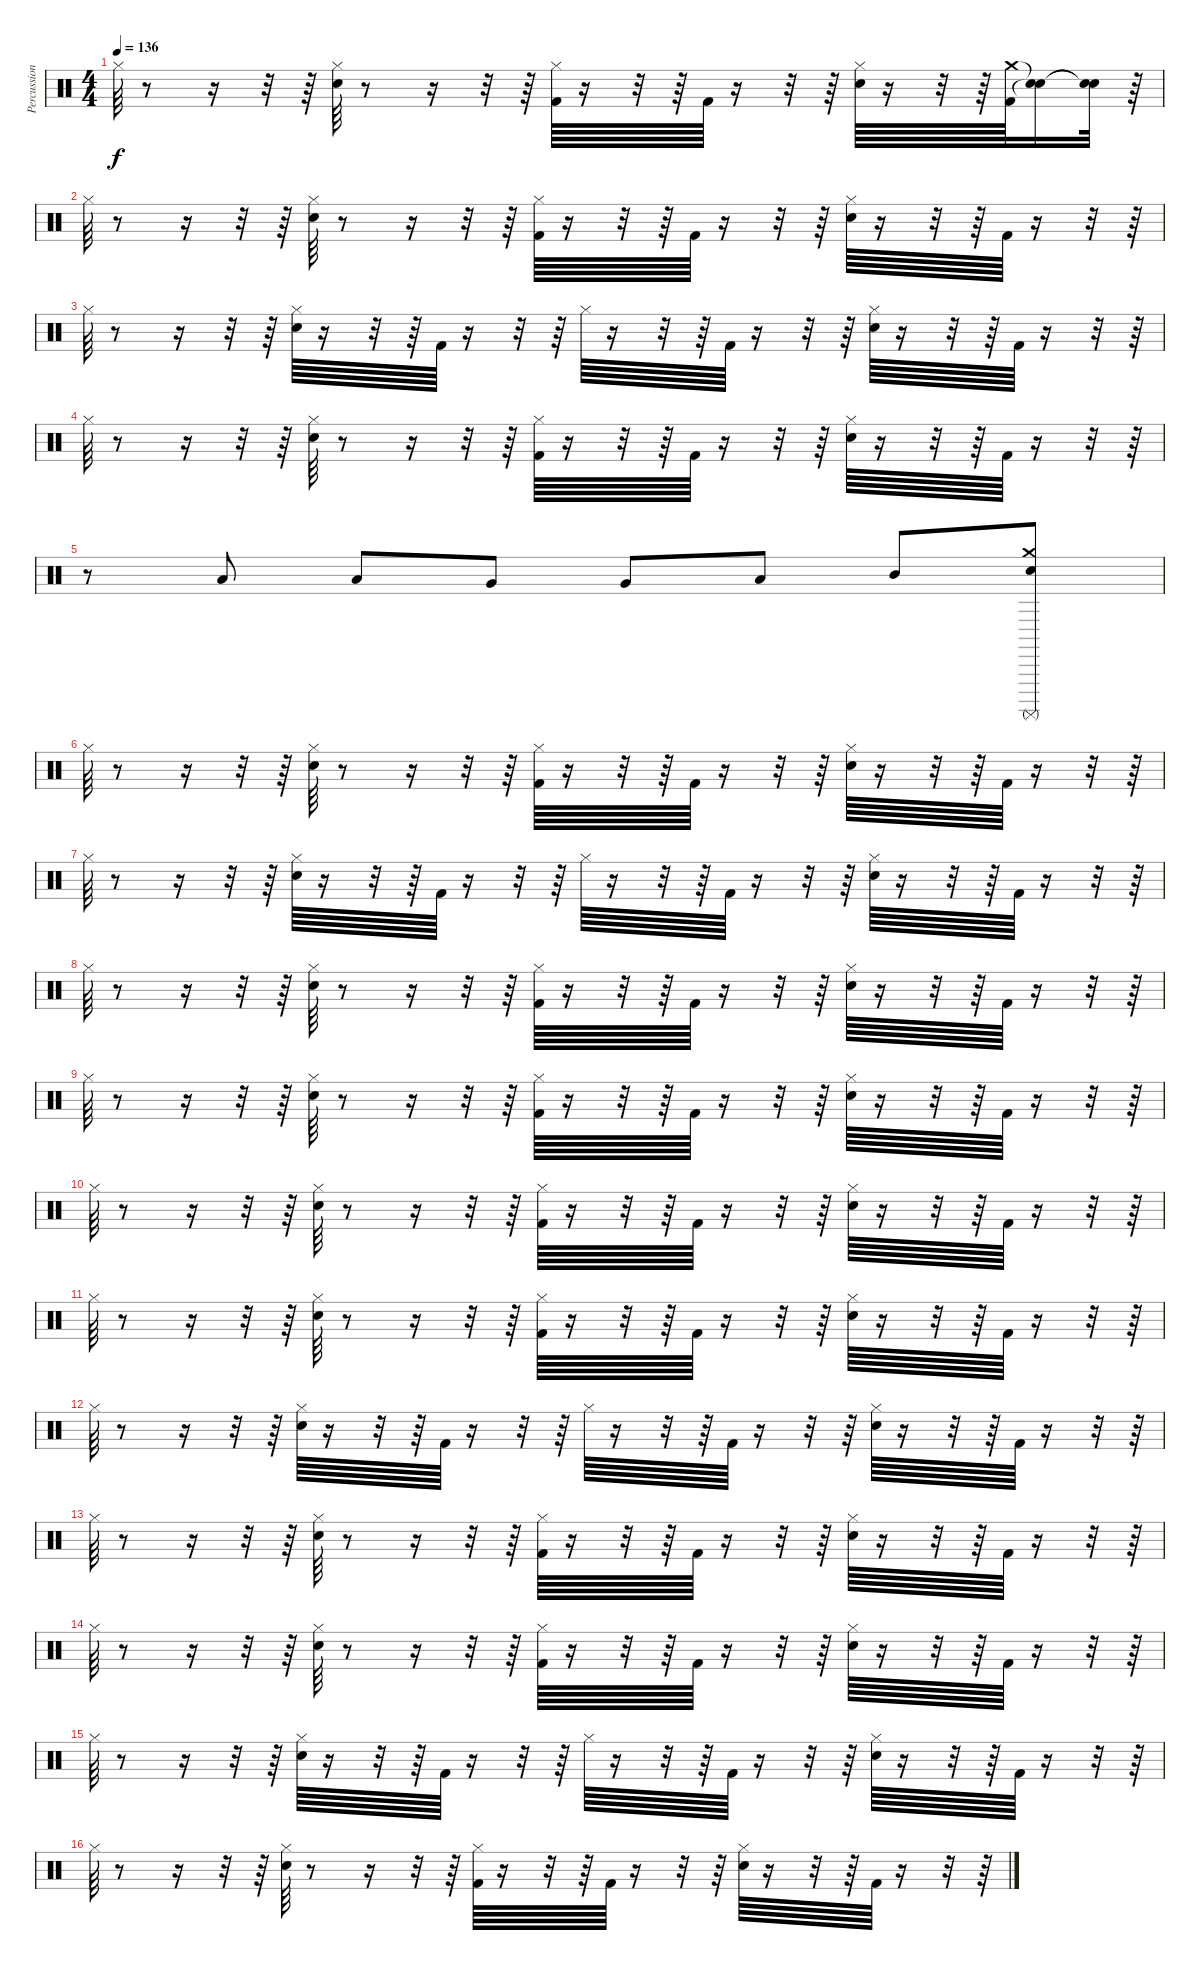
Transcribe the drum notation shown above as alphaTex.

\track ("Percussions" "Percussion") {instrument percussion}
\staff {score}
\articulation defaults
\ts (4 4)
\tempo 136
\clef neutral
\ks c "Hi-Hat (closed)".64{dy f}
r.8 r.16 r.32 r.64 ("Snare (hit) 2" "Hi-Hat (closed)").64 r.8 r.16 r.32 r.64 ("Kick (hit) 2" "Hi-Hat (closed)").64 r.16 r.32 r.64 "Kick (hit) 2".64 r.16 r.32 r.64 ("Snare (hit) 2" "Hi-Hat (closed)").64 r.16 r.32 r.64 ("Kick (hit) 2" "Crash medium (hit)").64 ("Snare (hit)"{t} "Snare (hit)"{t}).16 ("Snare (hit)"{t} "Snare (hit)"{t}).32 r.64 |
"Hi-Hat (closed)".64 r.8 r.16 r.32 r.64 ("Snare (hit) 2" "Hi-Hat (closed)").64 r.8 r.16 r.32 r.64 ("Kick (hit) 2" "Hi-Hat (closed)").64 r.16 r.32 r.64 "Kick (hit) 2".64 r.16 r.32 r.64 ("Snare (hit) 2" "Hi-Hat (closed)").64 r.16 r.32 r.64 "Kick (hit) 2".64 r.16 r.32 r.64 |
"Hi-Hat (closed)".64 r.8 r.16 r.32 r.64 ("Snare (hit) 2" "Hi-Hat (closed)").64 r.16 r.32 r.64 "Kick (hit) 2".64 r.16 r.32 r.64 "Hi-Hat (closed)".64 r.16 r.32 r.64 "Kick (hit) 2".64 r.16 r.32 r.64 ("Snare (hit) 2" "Hi-Hat (closed)").64 r.16 r.32 r.64 "Kick (hit) 2".64 r.16 r.32 r.64 |
"Hi-Hat (closed)".64 r.8 r.16 r.32 r.64 ("Snare (hit) 2" "Hi-Hat (closed)").64 r.8 r.16 r.32 r.64 ("Kick (hit) 2" "Hi-Hat (closed)").64 r.16 r.32 r.64 "Kick (hit) 2".64 r.16 r.32 r.64 ("Snare (hit) 2" "Hi-Hat (closed)").64 r.16 r.32 r.64 "Kick (hit) 2".64 r.16 r.32 r.64 |
r.8 "Low Floor Tom (hit)".8 "Low Floor Tom (hit)".8 "Very Low Tom (hit)".8 "Very Low Tom (hit)".8 "Low Tom (hit)".8 "Mid Tom (hit)".8 ("Snare (hit) 2" "Crash medium (hit)" "Surdo (mute)").8 |
"Hi-Hat (closed)".64 r.8 r.16 r.32 r.64 ("Snare (hit) 2" "Hi-Hat (closed)").64 r.8 r.16 r.32 r.64 ("Kick (hit) 2" "Hi-Hat (closed)").64 r.16 r.32 r.64 "Kick (hit) 2".64 r.16 r.32 r.64 ("Snare (hit) 2" "Hi-Hat (closed)").64 r.16 r.32 r.64 "Kick (hit) 2".64 r.16 r.32 r.64 |
"Hi-Hat (closed)".64 r.8 r.16 r.32 r.64 ("Snare (hit) 2" "Hi-Hat (closed)").64 r.16 r.32 r.64 "Kick (hit) 2".64 r.16 r.32 r.64 "Hi-Hat (closed)".64 r.16 r.32 r.64 "Kick (hit) 2".64 r.16 r.32 r.64 ("Snare (hit) 2" "Hi-Hat (closed)").64 r.16 r.32 r.64 "Kick (hit) 2".64 r.16 r.32 r.64 |
"Hi-Hat (closed)".64 r.8 r.16 r.32 r.64 ("Snare (hit) 2" "Hi-Hat (closed)").64 r.8 r.16 r.32 r.64 ("Kick (hit) 2" "Hi-Hat (closed)").64 r.16 r.32 r.64 "Kick (hit) 2".64 r.16 r.32 r.64 ("Snare (hit) 2" "Hi-Hat (closed)").64 r.16 r.32 r.64 "Kick (hit) 2".64 r.16 r.32 r.64 |
"Hi-Hat (closed)".64 r.8 r.16 r.32 r.64 ("Snare (hit) 2" "Hi-Hat (closed)").64 r.8 r.16 r.32 r.64 ("Kick (hit) 2" "Hi-Hat (closed)").64 r.16 r.32 r.64 "Kick (hit) 2".64 r.16 r.32 r.64 ("Snare (hit) 2" "Hi-Hat (closed)").64 r.16 r.32 r.64 "Kick (hit) 2".64 r.16 r.32 r.64 |
"Hi-Hat (closed)".64 r.8 r.16 r.32 r.64 ("Snare (hit) 2" "Hi-Hat (closed)").64 r.8 r.16 r.32 r.64 ("Kick (hit) 2" "Hi-Hat (closed)").64 r.16 r.32 r.64 "Kick (hit) 2".64 r.16 r.32 r.64 ("Snare (hit) 2" "Hi-Hat (closed)").64 r.16 r.32 r.64 "Kick (hit) 2".64 r.16 r.32 r.64 |
"Hi-Hat (closed)".64 r.8 r.16 r.32 r.64 ("Snare (hit) 2" "Hi-Hat (closed)").64 r.8 r.16 r.32 r.64 ("Kick (hit) 2" "Hi-Hat (closed)").64 r.16 r.32 r.64 "Kick (hit) 2".64 r.16 r.32 r.64 ("Snare (hit) 2" "Hi-Hat (closed)").64 r.16 r.32 r.64 "Kick (hit) 2".64 r.16 r.32 r.64 |
"Hi-Hat (closed)".64 r.8 r.16 r.32 r.64 ("Snare (hit) 2" "Hi-Hat (closed)").64 r.16 r.32 r.64 "Kick (hit) 2".64 r.16 r.32 r.64 "Hi-Hat (closed)".64 r.16 r.32 r.64 "Kick (hit) 2".64 r.16 r.32 r.64 ("Snare (hit) 2" "Hi-Hat (closed)").64 r.16 r.32 r.64 "Kick (hit) 2".64 r.16 r.32 r.64 |
"Hi-Hat (closed)".64 r.8 r.16 r.32 r.64 ("Snare (hit) 2" "Hi-Hat (closed)").64 r.8 r.16 r.32 r.64 ("Kick (hit) 2" "Hi-Hat (closed)").64 r.16 r.32 r.64 "Kick (hit) 2".64 r.16 r.32 r.64 ("Snare (hit) 2" "Hi-Hat (closed)").64 r.16 r.32 r.64 "Kick (hit) 2".64 r.16 r.32 r.64 |
"Hi-Hat (closed)".64 r.8 r.16 r.32 r.64 ("Snare (hit) 2" "Hi-Hat (closed)").64 r.8 r.16 r.32 r.64 ("Kick (hit) 2" "Hi-Hat (closed)").64 r.16 r.32 r.64 "Kick (hit) 2".64 r.16 r.32 r.64 ("Snare (hit) 2" "Hi-Hat (closed)").64 r.16 r.32 r.64 "Kick (hit) 2".64 r.16 r.32 r.64 |
"Hi-Hat (closed)".64 r.8 r.16 r.32 r.64 ("Snare (hit) 2" "Hi-Hat (closed)").64 r.16 r.32 r.64 "Kick (hit) 2".64 r.16 r.32 r.64 "Hi-Hat (closed)".64 r.16 r.32 r.64 "Kick (hit) 2".64 r.16 r.32 r.64 ("Snare (hit) 2" "Hi-Hat (closed)").64 r.16 r.32 r.64 "Kick (hit) 2".64 r.16 r.32 r.64 |
"Hi-Hat (closed)".64 r.8 r.16 r.32 r.64 ("Snare (hit) 2" "Hi-Hat (closed)").64 r.8 r.16 r.32 r.64 ("Kick (hit) 2" "Hi-Hat (closed)").64 r.16 r.32 r.64 "Kick (hit) 2".64 r.16 r.32 r.64 ("Snare (hit) 2" "Hi-Hat (closed)").64 r.16 r.32 r.64 "Kick (hit) 2".64 r.16 r.32 r.64
